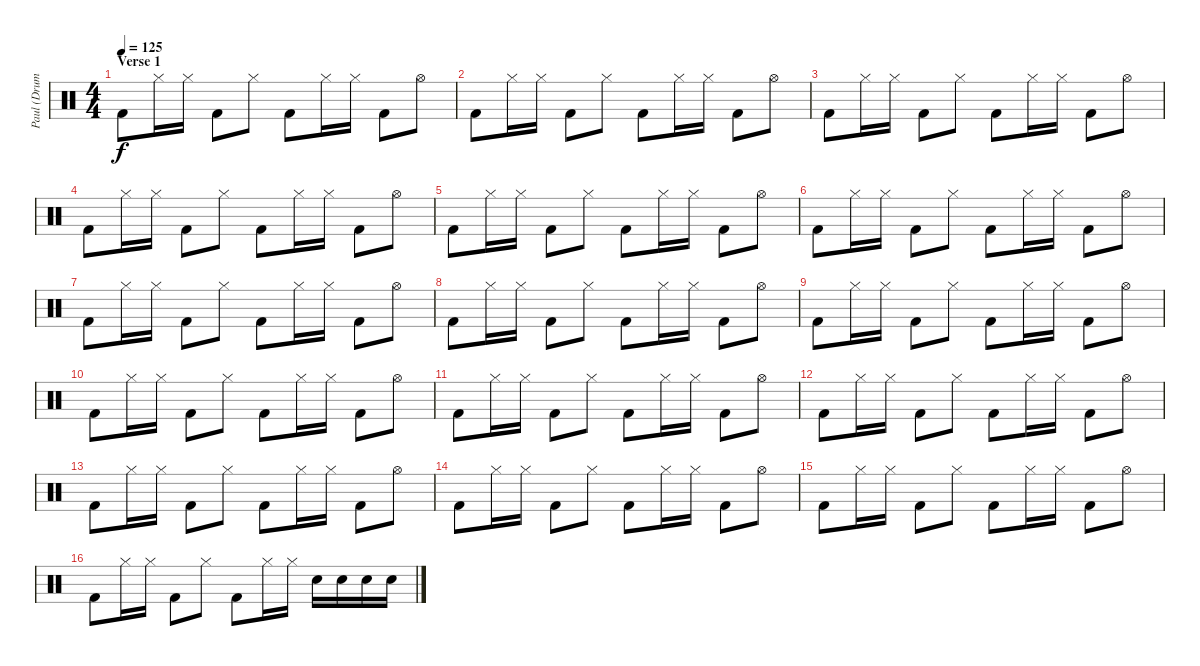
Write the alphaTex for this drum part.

\track ("Paul (Drums)" "Paul (Drum") {instrument percussion}
\staff {score}
\articulation defaults
\ts (4 4)
\section ("" "Verse 1")
\tempo 125
\clef neutral
\ks c "Kick (hit) 2".8{dy f} "Hi-Hat (closed)".16 "Hi-Hat (closed)".16 "Kick (hit) 2".8 "Hi-Hat (closed)".8 "Kick (hit) 2".8 "Hi-Hat (closed)".16 "Hi-Hat (closed)".16 "Kick (hit) 2".8 "Hi-Hat (open)".8
|
"Kick (hit) 2".8 "Hi-Hat (closed)".16 "Hi-Hat (closed)".16 "Kick (hit) 2".8 "Hi-Hat (closed)".8 "Kick (hit) 2".8 "Hi-Hat (closed)".16 "Hi-Hat (closed)".16 "Kick (hit) 2".8 "Hi-Hat (open)".8 |
"Kick (hit) 2".8 "Hi-Hat (closed)".16 "Hi-Hat (closed)".16 "Kick (hit) 2".8 "Hi-Hat (closed)".8 "Kick (hit) 2".8 "Hi-Hat (closed)".16 "Hi-Hat (closed)".16 "Kick (hit) 2".8 "Hi-Hat (open)".8 |
"Kick (hit) 2".8 "Hi-Hat (closed)".16 "Hi-Hat (closed)".16 "Kick (hit) 2".8 "Hi-Hat (closed)".8 "Kick (hit) 2".8 "Hi-Hat (closed)".16 "Hi-Hat (closed)".16 "Kick (hit) 2".8 "Hi-Hat (open)".8 |
"Kick (hit) 2".8 "Hi-Hat (closed)".16 "Hi-Hat (closed)".16 "Kick (hit) 2".8 "Hi-Hat (closed)".8 "Kick (hit) 2".8 "Hi-Hat (closed)".16 "Hi-Hat (closed)".16 "Kick (hit) 2".8 "Hi-Hat (open)".8 |
"Kick (hit) 2".8 "Hi-Hat (closed)".16 "Hi-Hat (closed)".16 "Kick (hit) 2".8 "Hi-Hat (closed)".8 "Kick (hit) 2".8 "Hi-Hat (closed)".16 "Hi-Hat (closed)".16 "Kick (hit) 2".8 "Hi-Hat (open)".8 |
"Kick (hit) 2".8 "Hi-Hat (closed)".16 "Hi-Hat (closed)".16 "Kick (hit) 2".8 "Hi-Hat (closed)".8 "Kick (hit) 2".8 "Hi-Hat (closed)".16 "Hi-Hat (closed)".16 "Kick (hit) 2".8 "Hi-Hat (open)".8 |
"Kick (hit) 2".8 "Hi-Hat (closed)".16 "Hi-Hat (closed)".16 "Kick (hit) 2".8 "Hi-Hat (closed)".8 "Kick (hit) 2".8 "Hi-Hat (closed)".16 "Hi-Hat (closed)".16 "Kick (hit) 2".8 "Hi-Hat (open)".8 |
"Kick (hit) 2".8 "Hi-Hat (closed)".16 "Hi-Hat (closed)".16 "Kick (hit) 2".8 "Hi-Hat (closed)".8 "Kick (hit) 2".8 "Hi-Hat (closed)".16 "Hi-Hat (closed)".16 "Kick (hit) 2".8 "Hi-Hat (open)".8 |
"Kick (hit) 2".8 "Hi-Hat (closed)".16 "Hi-Hat (closed)".16 "Kick (hit) 2".8 "Hi-Hat (closed)".8 "Kick (hit) 2".8 "Hi-Hat (closed)".16 "Hi-Hat (closed)".16 "Kick (hit) 2".8 "Hi-Hat (open)".8 |
"Kick (hit) 2".8 "Hi-Hat (closed)".16 "Hi-Hat (closed)".16 "Kick (hit) 2".8 "Hi-Hat (closed)".8 "Kick (hit) 2".8 "Hi-Hat (closed)".16 "Hi-Hat (closed)".16 "Kick (hit) 2".8 "Hi-Hat (open)".8 |
"Kick (hit) 2".8 "Hi-Hat (closed)".16 "Hi-Hat (closed)".16 "Kick (hit) 2".8 "Hi-Hat (closed)".8 "Kick (hit) 2".8 "Hi-Hat (closed)".16 "Hi-Hat (closed)".16 "Kick (hit) 2".8 "Hi-Hat (open)".8 |
"Kick (hit) 2".8 "Hi-Hat (closed)".16 "Hi-Hat (closed)".16 "Kick (hit) 2".8 "Hi-Hat (closed)".8 "Kick (hit) 2".8 "Hi-Hat (closed)".16 "Hi-Hat (closed)".16 "Kick (hit) 2".8 "Hi-Hat (open)".8 |
"Kick (hit) 2".8 "Hi-Hat (closed)".16 "Hi-Hat (closed)".16 "Kick (hit) 2".8 "Hi-Hat (closed)".8 "Kick (hit) 2".8 "Hi-Hat (closed)".16 "Hi-Hat (closed)".16 "Kick (hit) 2".8 "Hi-Hat (open)".8 |
"Kick (hit) 2".8 "Hi-Hat (closed)".16 "Hi-Hat (closed)".16 "Kick (hit) 2".8 "Hi-Hat (closed)".8 "Kick (hit) 2".8 "Hi-Hat (closed)".16 "Hi-Hat (closed)".16 "Kick (hit) 2".8 "Hi-Hat (open)".8 |
"Kick (hit) 2".8 "Hi-Hat (closed)".16 "Hi-Hat (closed)".16 "Kick (hit) 2".8 "Hi-Hat (closed)".8 "Kick (hit) 2".8 "Hi-Hat (closed)".16 "Hi-Hat (closed)".16 "Snare (hit) 2".16 "Snare (hit) 2".16 "Snare (hit) 2".16 "Snare (hit) 2".16
